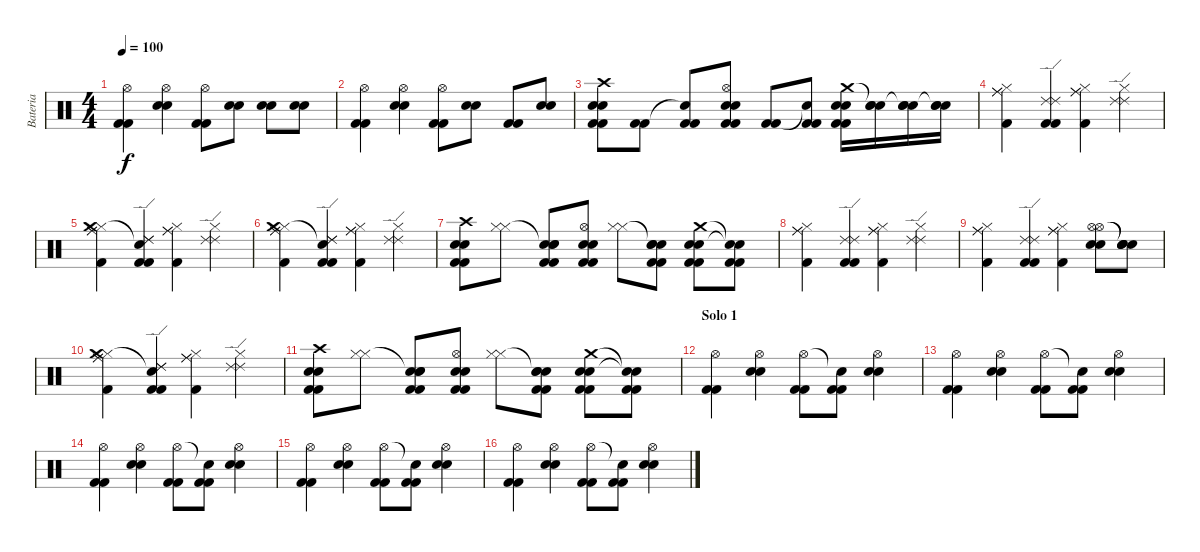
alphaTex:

\track ("Bateria" "Bateria") {instrument percussion}
\staff {score}
\articulation defaults
\ts (4 4)
\tempo 100
\clef neutral
\ks c
("Kick (hit) 2" "Kick (hit) 2" "Hi-Hat (open)").4{dy f} ("Electric Snare (hit)" "Electric Snare (hit)" "Hi-Hat (open)").4 ("Kick (hit) 2" "Kick (hit) 2" "Hi-Hat (open)").8 ("Snare (hit) 2" "Snare (hit) 2").8 ("Snare (hit) 2" "Snare (hit) 2").8 ("Snare (hit) 2" "Snare (hit) 2").8 |
("Kick (hit) 2" "Kick (hit) 2" "Hi-Hat (open)").4 ("Electric Snare (hit)" "Electric Snare (hit)" "Hi-Hat (open)").4 ("Kick (hit) 2" "Kick (hit) 2" "Hi-Hat (open)").8 ("Snare (hit) 2" "Snare (hit) 2").8 ("Kick (hit) 2" "Kick (hit) 2").8 ("Snare (hit) 2" "Snare (hit) 2").8 |
("Crash high (hit)" "Snare (hit) 2" "Snare (hit) 2" "Kick (hit) 2" "Kick (hit) 2").8 ("Kick (hit) 2" "Kick (hit) 2").8 ("Snare (hit)"{t} "Kick (hit) 2" "Kick (hit) 2").8 ("Hi-Hat (open)" "Snare (hit) 2" "Snare (hit) 2" "Kick (hit) 2" "Kick (hit) 2").8 ("Kick (hit) 2" "Kick (hit) 2").8 ("Snare (hit)"{t} "Kick (hit) 2" "Kick (hit) 2").8 ("Crash medium (hit)" "Snare (hit) 2" "Snare (hit) 2" "Kick (hit) 2" "Kick (hit) 2").16 ("Snare (hit)"{t} "Snare (hit) 2" "Snare (hit) 2").16 ("Snare (hit)"{t} "Snare (hit) 2" "Snare (hit) 2").16 ("Snare (hit)"{t} "Snare (hit) 2" "Snare (hit) 2").16 |
("Ride (middle)" "Ride (middle)" "Hi-Hat (closed)" "Kick (hit) 2").4 ("Kick (hit) 2" "Kick (hit) 2" "Ride (edge) 2" "Ride (edge) 2").4 ("Ride (middle)" "Ride (middle)" "Hi-Hat (closed)" "Kick (hit) 2").4 ("Ride (edge) 2" "Ride (edge) 2" "Hi-Hat (closed)").4 |
("Ride (middle)" "Ride (middle)" "Hi-Hat (closed)" "Kick (hit) 2" "Crash medium (hit)").4 ("Kick (hit) 2" "Kick (hit) 2" "Ride (edge) 2" "Ride (edge) 2" "Snare (hit)"{t}).4 ("Ride (middle)" "Ride (middle)" "Hi-Hat (closed)" "Kick (hit) 2").4 ("Ride (edge) 2" "Ride (edge) 2" "Hi-Hat (closed)").4 |
("Ride (middle)" "Ride (middle)" "Hi-Hat (closed)" "Kick (hit) 2" "Crash medium (hit)").4 ("Kick (hit) 2" "Kick (hit) 2" "Ride (edge) 2" "Ride (edge) 2" "Snare (hit)"{t}).4 ("Ride (middle)" "Ride (middle)" "Hi-Hat (closed)" "Kick (hit) 2").4 ("Ride (edge) 2" "Ride (edge) 2" "Hi-Hat (closed)").4 |
("Crash high (hit)" "Snare (hit) 2" "Snare (hit) 2" "Kick (hit) 2" "Kick (hit) 2").8 ("Hi-Hat (closed)" "Hi-Hat (closed)").8 ("Snare (hit)"{t} "Electric Snare (hit)" "Electric Snare (hit)" "Kick (hit) 2" "Kick (hit) 2").8 ("Hi-Hat (open)" "Snare (hit) 2" "Snare (hit) 2" "Kick (hit) 2" "Kick (hit) 2").8 ("Hi-Hat (closed)" "Hi-Hat (closed)").8 ("Snare (hit)"{t} "Electric Snare (hit)" "Electric Snare (hit)" "Kick (hit) 2" "Kick (hit) 2").8 ("Crash medium (hit)" "Snare (hit) 2" "Snare (hit) 2" "Kick (hit) 2" "Kick (hit) 2").8 ("Snare (hit)"{t} "Snare (hit) 2"{t} "Kick (hit) 2" "Kick (hit) 2").8 |
("Ride (middle)" "Ride (middle)" "Hi-Hat (closed)" "Kick (hit) 2").4 ("Kick (hit) 2" "Kick (hit) 2" "Ride (edge) 2" "Ride (edge) 2").4 ("Ride (middle)" "Ride (middle)" "Hi-Hat (closed)" "Kick (hit) 2").4 ("Ride (edge) 2" "Ride (edge) 2" "Hi-Hat (closed)").4 |
("Ride (middle)" "Ride (middle)" "Hi-Hat (closed)" "Kick (hit) 2").4 ("Kick (hit) 2" "Kick (hit) 2" "Ride (edge) 2" "Ride (edge) 2").4 ("Ride (middle)" "Ride (middle)" "Hi-Hat (closed)" "Kick (hit) 2").4 ("Hi-Hat (open)" "Electric Snare (hit)" "Electric Snare (hit)" "Hi-Hat (open)").8 ("Snare (hit)"{t} "Electric Snare (hit)" "Electric Snare (hit)" "Snare (hit)"{t}).8 |
("Ride (middle)" "Ride (middle)" "Hi-Hat (closed)" "Kick (hit) 2" "Crash medium (hit)").4 ("Kick (hit) 2" "Kick (hit) 2" "Ride (edge) 2" "Ride (edge) 2" "Snare (hit)"{t}).4 ("Ride (middle)" "Ride (middle)" "Hi-Hat (closed)" "Kick (hit) 2").4 ("Ride (edge) 2" "Ride (edge) 2" "Hi-Hat (closed)").4 |
("Crash high (hit)" "Snare (hit) 2" "Snare (hit) 2" "Kick (hit) 2" "Kick (hit) 2").8 ("Hi-Hat (closed)" "Hi-Hat (closed)").8 ("Snare (hit)"{t} "Electric Snare (hit)" "Electric Snare (hit)" "Kick (hit) 2" "Kick (hit) 2").8 ("Hi-Hat (open)" "Snare (hit) 2" "Snare (hit) 2" "Kick (hit) 2" "Kick (hit) 2").8 ("Hi-Hat (closed)" "Hi-Hat (closed)").8 ("Snare (hit)"{t} "Electric Snare (hit)" "Electric Snare (hit)" "Kick (hit) 2" "Kick (hit) 2").8 ("Crash medium (hit)" "Snare (hit) 2" "Snare (hit) 2" "Kick (hit) 2" "Kick (hit) 2").8 ("Snare (hit)"{t} "Snare (hit) 2"{t} "Kick (hit) 2" "Kick (hit) 2").8 |
\section ("" "Solo 1")
("Kick (hit) 2" "Kick (hit) 2" "Hi-Hat (open)").4 ("Electric Snare (hit)" "Electric Snare (hit)" "Hi-Hat (open)").4 ("Kick (hit) 2" "Kick (hit) 2" "Hi-Hat (open)").8 ("Kick (hit) 2" "Kick (hit) 2" "Snare (hit)"{t}).8 ("Electric Snare (hit)" "Electric Snare (hit)" "Hi-Hat (open)").4 |
("Kick (hit) 2" "Kick (hit) 2" "Hi-Hat (open)").4 ("Electric Snare (hit)" "Electric Snare (hit)" "Hi-Hat (open)").4 ("Kick (hit) 2" "Kick (hit) 2" "Hi-Hat (open)").8 ("Kick (hit) 2" "Kick (hit) 2" "Snare (hit)"{t}).8 ("Electric Snare (hit)" "Electric Snare (hit)" "Hi-Hat (open)").4 |
("Kick (hit) 2" "Kick (hit) 2" "Hi-Hat (open)").4 ("Electric Snare (hit)" "Electric Snare (hit)" "Hi-Hat (open)").4 ("Kick (hit) 2" "Kick (hit) 2" "Hi-Hat (open)").8 ("Kick (hit) 2" "Kick (hit) 2" "Snare (hit)"{t}).8 ("Electric Snare (hit)" "Electric Snare (hit)" "Hi-Hat (open)").4 |
("Kick (hit) 2" "Kick (hit) 2" "Hi-Hat (open)").4 ("Electric Snare (hit)" "Electric Snare (hit)" "Hi-Hat (open)").4 ("Kick (hit) 2" "Kick (hit) 2" "Hi-Hat (open)").8 ("Kick (hit) 2" "Kick (hit) 2" "Snare (hit)"{t}).8 ("Electric Snare (hit)" "Electric Snare (hit)" "Hi-Hat (open)").4 |
("Kick (hit) 2" "Kick (hit) 2" "Hi-Hat (open)").4 ("Electric Snare (hit)" "Electric Snare (hit)" "Hi-Hat (open)").4 ("Kick (hit) 2" "Kick (hit) 2" "Hi-Hat (open)").8 ("Kick (hit) 2" "Kick (hit) 2" "Snare (hit)"{t}).8 ("Electric Snare (hit)" "Electric Snare (hit)" "Hi-Hat (open)").4
